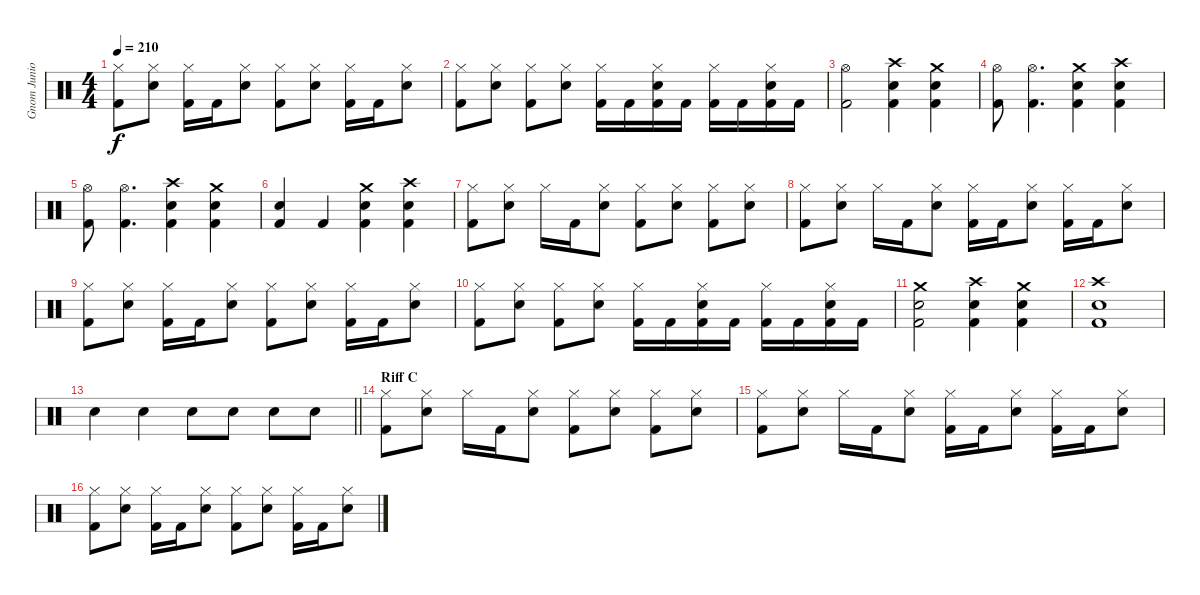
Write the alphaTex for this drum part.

\track ("Gnom Junior" "Gnom Junio") {instrument percussion}
\staff {score}
\articulation defaults
\ts (4 4)
\tempo 210
\clef neutral
\ks c
("Hi-Hat (closed)" "Kick (hit) 2").8{dy f} ("Hi-Hat (closed)" "Electric Snare (hit)").8 ("Hi-Hat (closed)" "Kick (hit) 2").16 "Kick (hit) 2".16 ("Hi-Hat (closed)" "Electric Snare (hit)").8 ("Hi-Hat (closed)" "Kick (hit) 2").8 ("Hi-Hat (closed)" "Electric Snare (hit)").8 ("Hi-Hat (closed)" "Kick (hit) 2").16 "Kick (hit) 2".16 ("Hi-Hat (closed)" "Electric Snare (hit)").8 |
("Hi-Hat (closed)" "Kick (hit) 2").8 ("Hi-Hat (closed)" "Electric Snare (hit)").8 ("Hi-Hat (closed)" "Kick (hit) 2").8 ("Hi-Hat (closed)" "Electric Snare (hit)").8 ("Hi-Hat (closed)" "Kick (hit) 2").16 "Kick (hit) 2".16 ("Hi-Hat (closed)" "Electric Snare (hit)" "Kick (hit) 2").16 "Kick (hit) 2".16 ("Hi-Hat (closed)" "Kick (hit) 2").16 "Kick (hit) 2".16 ("Hi-Hat (closed)" "Electric Snare (hit)" "Kick (hit) 2").16 "Kick (hit) 2".16 |
("Hi-Hat (open)" "Kick (hit) 2").2 ("Crash high (hit)" "Electric Snare (hit)" "Kick (hit) 2").4 ("Crash medium (hit)" "Electric Snare (hit)" "Kick (hit) 2").4 |
("Hi-Hat (open)" "Kick (hit) 2").8 ("Hi-Hat (open)" "Kick (hit) 2").4{d} ("Crash medium (hit)" "Electric Snare (hit)" "Kick (hit) 2").4 ("Crash high (hit)" "Electric Snare (hit)" "Kick (hit) 2").4 |
("Hi-Hat (open)" "Kick (hit) 2").8 ("Hi-Hat (open)" "Kick (hit) 2").4{d} ("Crash high (hit)" "Electric Snare (hit)" "Kick (hit) 2").4 ("Crash medium (hit)" "Electric Snare (hit)" "Kick (hit) 2").4 |
("Electric Snare (hit)" "Kick (hit) 2").4 "Kick (hit) 2".4 ("Crash medium (hit)" "Electric Snare (hit)" "Kick (hit) 2").4 ("Crash high (hit)" "Electric Snare (hit)" "Kick (hit) 2").4 |
("Hi-Hat (closed)" "Kick (hit) 2").8 ("Hi-Hat (closed)" "Electric Snare (hit)").8 "Hi-Hat (closed)".16 "Kick (hit) 2".16 ("Hi-Hat (closed)" "Electric Snare (hit)").8 ("Hi-Hat (closed)" "Kick (hit) 2").8 ("Hi-Hat (closed)" "Electric Snare (hit)").8 ("Hi-Hat (closed)" "Kick (hit) 2").8 ("Hi-Hat (closed)" "Electric Snare (hit)").8 |
("Hi-Hat (closed)" "Kick (hit) 2").8 ("Hi-Hat (closed)" "Electric Snare (hit)").8 "Hi-Hat (closed)".16 "Kick (hit) 2".16 ("Hi-Hat (closed)" "Electric Snare (hit)").8 ("Hi-Hat (closed)" "Kick (hit) 2").16 "Kick (hit) 2".16 ("Hi-Hat (closed)" "Electric Snare (hit)").8 ("Hi-Hat (closed)" "Kick (hit) 2").16 "Kick (hit) 2".16 ("Hi-Hat (closed)" "Electric Snare (hit)").8 |
("Hi-Hat (closed)" "Kick (hit) 2").8 ("Hi-Hat (closed)" "Electric Snare (hit)").8 ("Hi-Hat (closed)" "Kick (hit) 2").16 "Kick (hit) 2".16 ("Hi-Hat (closed)" "Electric Snare (hit)").8 ("Hi-Hat (closed)" "Kick (hit) 2").8 ("Hi-Hat (closed)" "Electric Snare (hit)").8 ("Hi-Hat (closed)" "Kick (hit) 2").16 "Kick (hit) 2".16 ("Hi-Hat (closed)" "Electric Snare (hit)").8 |
("Hi-Hat (closed)" "Kick (hit) 2").8 ("Hi-Hat (closed)" "Electric Snare (hit)").8 ("Hi-Hat (closed)" "Kick (hit) 2").8 ("Hi-Hat (closed)" "Electric Snare (hit)").8 ("Hi-Hat (closed)" "Kick (hit) 2").16 "Kick (hit) 2".16 ("Hi-Hat (closed)" "Electric Snare (hit)" "Kick (hit) 2").16 "Kick (hit) 2".16 ("Hi-Hat (closed)" "Kick (hit) 2").16 "Kick (hit) 2".16 ("Hi-Hat (closed)" "Electric Snare (hit)" "Kick (hit) 2").16 "Kick (hit) 2".16 |
("Crash medium (hit)" "Electric Snare (hit)" "Kick (hit) 2").2 ("Crash high (hit)" "Electric Snare (hit)" "Kick (hit) 2").4 ("Crash medium (hit)" "Electric Snare (hit)" "Kick (hit) 2").4 |
("Crash high (hit)" "Electric Snare (hit)" "Kick (hit) 2").1 |
\barLineRight lightlight "Electric Snare (hit)".4 "Electric Snare (hit)".4 "Electric Snare (hit)".8 "Electric Snare (hit)".8 "Electric Snare (hit)".8 "Electric Snare (hit)".8
|
\section ("" "Riff C")
("Hi-Hat (closed)" "Kick (hit) 2").8 ("Hi-Hat (closed)" "Electric Snare (hit)").8 "Hi-Hat (closed)".16 "Kick (hit) 2".16 ("Hi-Hat (closed)" "Electric Snare (hit)").8 ("Hi-Hat (closed)" "Kick (hit) 2").8 ("Hi-Hat (closed)" "Electric Snare (hit)").8 ("Hi-Hat (closed)" "Kick (hit) 2").8 ("Hi-Hat (closed)" "Electric Snare (hit)").8 |
("Hi-Hat (closed)" "Kick (hit) 2").8 ("Hi-Hat (closed)" "Electric Snare (hit)").8 "Hi-Hat (closed)".16 "Kick (hit) 2".16 ("Hi-Hat (closed)" "Electric Snare (hit)").8 ("Hi-Hat (closed)" "Kick (hit) 2").16 "Kick (hit) 2".16 ("Hi-Hat (closed)" "Electric Snare (hit)").8 ("Hi-Hat (closed)" "Kick (hit) 2").16 "Kick (hit) 2".16 ("Hi-Hat (closed)" "Electric Snare (hit)").8 |
("Hi-Hat (closed)" "Kick (hit) 2").8 ("Hi-Hat (closed)" "Electric Snare (hit)").8 ("Hi-Hat (closed)" "Kick (hit) 2").16 "Kick (hit) 2".16 ("Hi-Hat (closed)" "Electric Snare (hit)").8 ("Hi-Hat (closed)" "Kick (hit) 2").8 ("Hi-Hat (closed)" "Electric Snare (hit)").8 ("Hi-Hat (closed)" "Kick (hit) 2").16 "Kick (hit) 2".16 ("Hi-Hat (closed)" "Electric Snare (hit)").8
